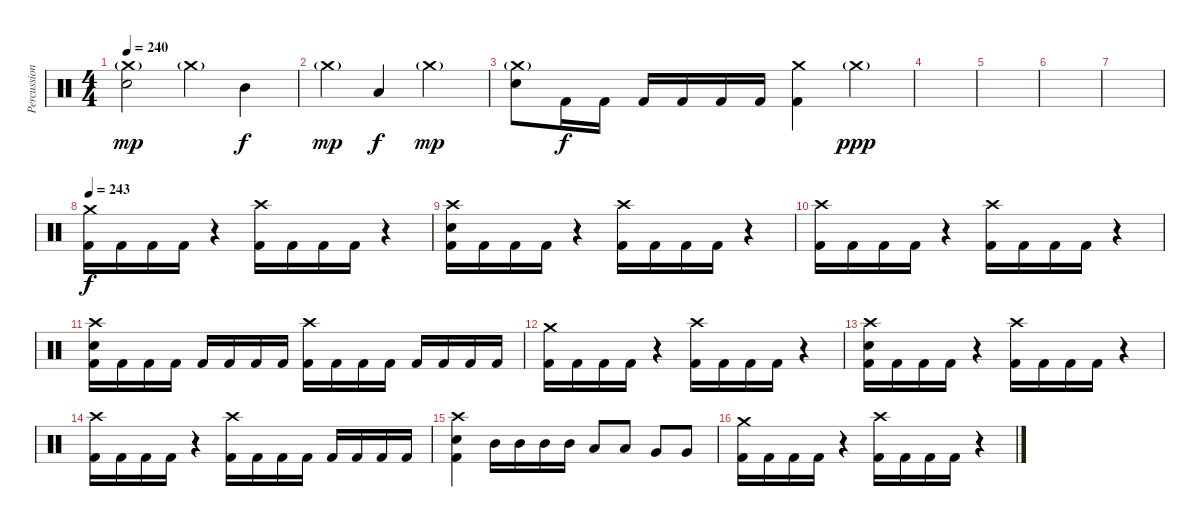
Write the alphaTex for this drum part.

\track ("Percussion" "Percussion") {solo instrument percussion}
\staff {score}
\articulation defaults
\ts (4 4)
\tempo 240
\clef neutral
\ks c
("Crash medium (hit)"{g} "Electric Snare (hit)").2{dy mp} "Crash medium (hit)"{g}.4 "Mid Tom (hit)".4{dy f} |
"Crash medium (hit)"{g}.4{dy mp} "Low Tom (hit)".4{dy f} "Crash medium (hit)"{g}.2{dy mp} |
("Crash medium (hit)"{g} "Electric Snare (hit)").8 "Kick (hit) 2".16{dy f} "Kick (hit) 2".16 "Kick (hit) 2".16 "Kick (hit) 2".16 "Kick (hit) 2".16 "Kick (hit) 2".16 ("Crash medium (hit)" "Kick (hit) 2").4 "Crash medium (hit)"{g}.4{dy ppp} |
|
|
|
|
\tempo 243
("Crash medium (hit)" "Kick (hit) 2").16{dy f} "Kick (hit) 2".16 "Kick (hit) 2".16 "Kick (hit) 2".16 r.4 ("Crash high (hit)" "Kick (hit) 2").16 "Kick (hit) 2".16 "Kick (hit) 2".16 "Kick (hit) 2".16 r.4 |
("Crash high (hit)" "Electric Snare (hit)" "Kick (hit) 2").16 "Kick (hit) 2".16 "Kick (hit) 2".16 "Kick (hit) 2".16 r.4 ("Crash high (hit)" "Kick (hit) 2").16 "Kick (hit) 2".16 "Kick (hit) 2".16 "Kick (hit) 2".16 r.4 |
("Crash high (hit)" "Kick (hit) 2").16 "Kick (hit) 2".16 "Kick (hit) 2".16 "Kick (hit) 2".16 r.4 ("Crash high (hit)" "Kick (hit) 2").16 "Kick (hit) 2".16 "Kick (hit) 2".16 "Kick (hit) 2".16 r.4 |
("Crash high (hit)" "Electric Snare (hit)" "Kick (hit) 2").16 "Kick (hit) 2".16 "Kick (hit) 2".16 "Kick (hit) 2".16 "Kick (hit) 2".16 "Kick (hit) 2".16 "Kick (hit) 2".16 "Kick (hit) 2".16 ("Crash high (hit)" "Kick (hit) 2").16 "Kick (hit) 2".16 "Kick (hit) 2".16 "Kick (hit) 2".16 "Kick (hit) 2".16 "Kick (hit) 2".16 "Kick (hit) 2".16 "Kick (hit) 2".16 |
("Crash medium (hit)" "Kick (hit) 2").16 "Kick (hit) 2".16 "Kick (hit) 2".16 "Kick (hit) 2".16 r.4 ("Crash high (hit)" "Kick (hit) 2").16 "Kick (hit) 2".16 "Kick (hit) 2".16 "Kick (hit) 2".16 r.4 |
("Crash high (hit)" "Electric Snare (hit)" "Kick (hit) 2").16 "Kick (hit) 2".16 "Kick (hit) 2".16 "Kick (hit) 2".16 r.4 ("Crash high (hit)" "Kick (hit) 2").16 "Kick (hit) 2".16 "Kick (hit) 2".16 "Kick (hit) 2".16 r.4 |
("Crash high (hit)" "Kick (hit) 2").16 "Kick (hit) 2".16 "Kick (hit) 2".16 "Kick (hit) 2".16 r.4 ("Crash high (hit)" "Kick (hit) 2").16 "Kick (hit) 2".16 "Kick (hit) 2".16 "Kick (hit) 2".16 "Kick (hit) 2".16 "Kick (hit) 2".16 "Kick (hit) 2".16 "Kick (hit) 2".16 |
("Crash high (hit)" "Electric Snare (hit)" "Kick (hit) 2").4 "Mid Tom (hit)".16 "Mid Tom (hit)".16 "Mid Tom (hit)".16 "Mid Tom (hit)".16 "Low Tom (hit)".8 "Low Tom (hit)".8 "Very Low Tom (hit)".8 "Very Low Tom (hit)".8 |
("Crash medium (hit)" "Kick (hit) 2").16 "Kick (hit) 2".16 "Kick (hit) 2".16 "Kick (hit) 2".16 r.4 ("Crash high (hit)" "Kick (hit) 2").16 "Kick (hit) 2".16 "Kick (hit) 2".16 "Kick (hit) 2".16 r.4
